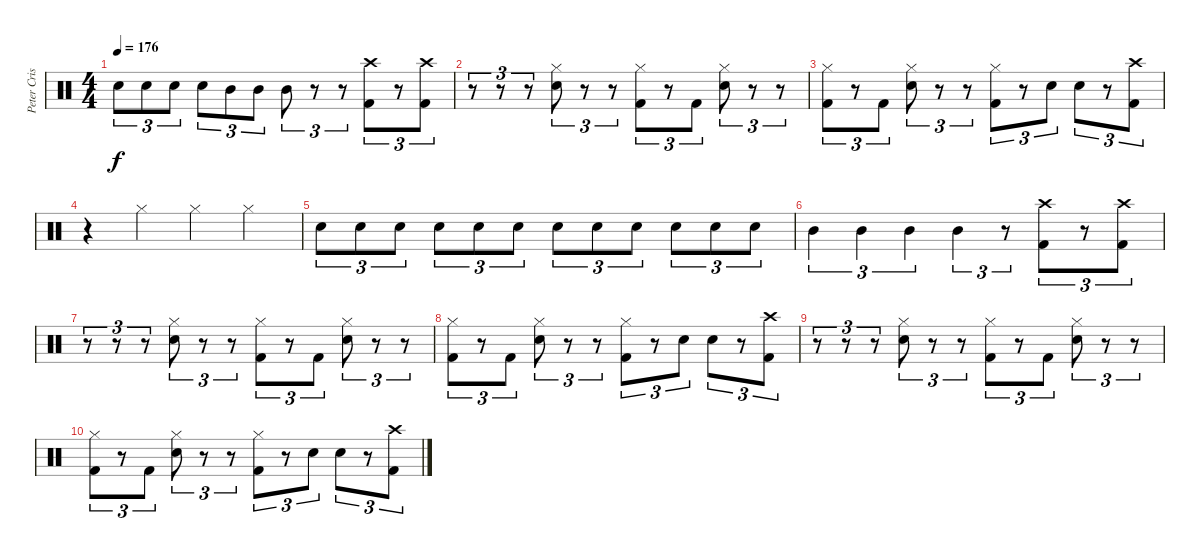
\track ("Peter Criss" "Peter Cris") {instrument percussion}
\staff {score}
\articulation defaults
\ts (4 4)
\tempo 176
\clef neutral
\ks c "Electric Snare (hit)".8{tu (3 2) dy f} "Electric Snare (hit)".8{tu (3 2)} "Electric Snare (hit)".8{tu (3 2)} "Electric Snare (hit)".8{tu (3 2)} "Mid Tom (hit)".8{tu (3 2)} "Mid Tom (hit)".8{tu (3 2)} "Mid Tom (hit)".8{tu (3 2)}
r.8{tu (3 2)} r.8{tu (3 2)} ("Crash high (hit)" "Kick (hit) 2").8{tu (3 2)} r.8{tu (3 2)} ("Crash high (hit)" "Kick (hit) 2").8{tu (3 2)} |
r.8{tu (3 2)} r.8{tu (3 2)} r.8{tu (3 2)} ("Hi-Hat (closed)" "Electric Snare (hit)").8{tu (3 2)} r.8{tu (3 2)} r.8{tu (3 2)} ("Hi-Hat (closed)" "Kick (hit) 2").8{tu (3 2)} r.8{tu (3 2)} "Kick (hit) 2".8{tu (3 2)} ("Hi-Hat (closed)" "Electric Snare (hit)").8{tu (3 2)} r.8{tu (3 2)} r.8{tu (3 2)} |
("Hi-Hat (closed)" "Kick (hit) 2").8{tu (3 2)} r.8{tu (3 2)} "Kick (hit) 2".8{tu (3 2)} ("Hi-Hat (closed)" "Electric Snare (hit)").8{tu (3 2)} r.8{tu (3 2)} r.8{tu (3 2)} ("Hi-Hat (closed)" "Kick (hit) 2").8{tu (3 2)} r.8{tu (3 2)} "Electric Snare (hit)".8{tu (3 2)} "Electric Snare (hit)".8{tu (3 2)} r.8{tu (3 2)} ("Crash high (hit)" "Kick (hit) 2").8{tu (3 2)} |
r.4 "Hi-Hat (closed)".4 "Hi-Hat (closed)".4 "Hi-Hat (closed)".4 |
"Electric Snare (hit)".8{tu (3 2)} "Electric Snare (hit)".8{tu (3 2)} "Electric Snare (hit)".8{tu (3 2)} "Electric Snare (hit)".8{tu (3 2)} "Electric Snare (hit)".8{tu (3 2)} "Electric Snare (hit)".8{tu (3 2)} "Electric Snare (hit)".8{tu (3 2)} "Electric Snare (hit)".8{tu (3 2)} "Electric Snare (hit)".8{tu (3 2)} "Electric Snare (hit)".8{tu (3 2)} "Electric Snare (hit)".8{tu (3 2)} "Electric Snare (hit)".8{tu (3 2)} |
"Mid Tom (hit)".4{tu (3 2)} "Mid Tom (hit)".4{tu (3 2)} "Mid Tom (hit)".4{tu (3 2)} "Mid Tom (hit)".4{tu (3 2)} r.8{tu (3 2)} ("Crash high (hit)" "Kick (hit) 2").8{tu (3 2)} r.8{tu (3 2)} ("Crash high (hit)" "Kick (hit) 2").8{tu (3 2)} |
r.8{tu (3 2)} r.8{tu (3 2)} r.8{tu (3 2)} ("Hi-Hat (closed)" "Electric Snare (hit)").8{tu (3 2)} r.8{tu (3 2)} r.8{tu (3 2)} ("Hi-Hat (closed)" "Kick (hit) 2").8{tu (3 2)} r.8{tu (3 2)} "Kick (hit) 2".8{tu (3 2)} ("Hi-Hat (closed)" "Electric Snare (hit)").8{tu (3 2)} r.8{tu (3 2)} r.8{tu (3 2)} |
("Hi-Hat (closed)" "Kick (hit) 2").8{tu (3 2)} r.8{tu (3 2)} "Kick (hit) 2".8{tu (3 2)} ("Hi-Hat (closed)" "Electric Snare (hit)").8{tu (3 2)} r.8{tu (3 2)} r.8{tu (3 2)} ("Hi-Hat (closed)" "Kick (hit) 2").8{tu (3 2)} r.8{tu (3 2)} "Electric Snare (hit)".8{tu (3 2)} "Electric Snare (hit)".8{tu (3 2)} r.8{tu (3 2)} ("Crash high (hit)" "Kick (hit) 2").8{tu (3 2)} |
r.8{tu (3 2)} r.8{tu (3 2)} r.8{tu (3 2)} ("Hi-Hat (closed)" "Electric Snare (hit)").8{tu (3 2)} r.8{tu (3 2)} r.8{tu (3 2)} ("Hi-Hat (closed)" "Kick (hit) 2").8{tu (3 2)} r.8{tu (3 2)} "Kick (hit) 2".8{tu (3 2)} ("Hi-Hat (closed)" "Electric Snare (hit)").8{tu (3 2)} r.8{tu (3 2)} r.8{tu (3 2)} |
("Hi-Hat (closed)" "Kick (hit) 2").8{tu (3 2)} r.8{tu (3 2)} "Kick (hit) 2".8{tu (3 2)} ("Hi-Hat (closed)" "Electric Snare (hit)").8{tu (3 2)} r.8{tu (3 2)} r.8{tu (3 2)} ("Hi-Hat (closed)" "Kick (hit) 2").8{tu (3 2)} r.8{tu (3 2)} "Electric Snare (hit)".8{tu (3 2)} "Electric Snare (hit)".8{tu (3 2)} r.8{tu (3 2)} ("Crash high (hit)" "Kick (hit) 2").8{tu (3 2)}
